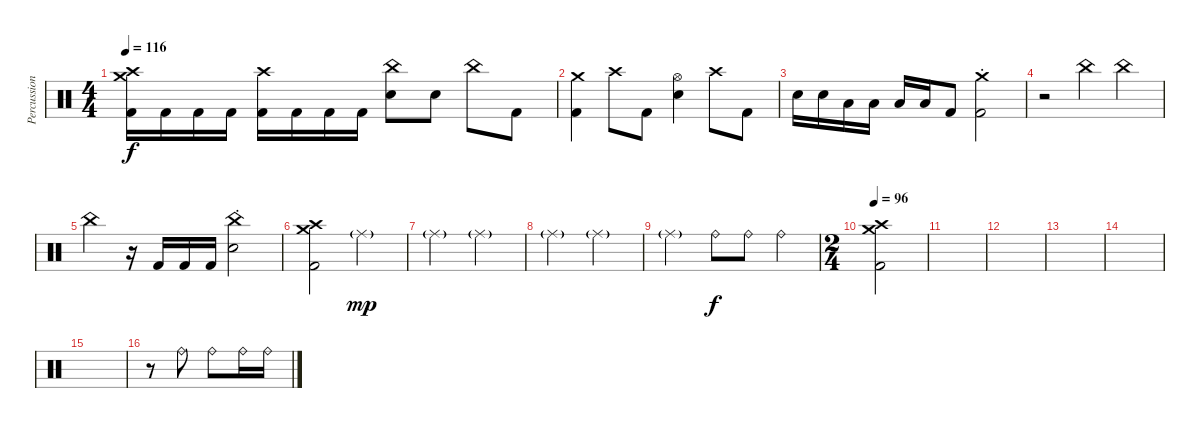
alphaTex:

\track ("Percussion" "Percussion") {instrument percussion}
\staff {score}
\articulation defaults
\ts (4 4)
\tempo 116
\clef neutral
\ks c
("Crash medium (hit)" "Crash high (hit)" "Kick (hit) 2").16{dy f} "Kick (hit) 2".16 "Kick (hit) 2".16 "Kick (hit) 2".16 ("Crash high (hit)" "Kick (hit) 2").16 "Kick (hit) 2".16 "Kick (hit) 2".16 "Kick (hit) 2".16 ("China (hit)" "Electric Snare (hit)").8 "Electric Snare (hit)".8 "China (hit)".8 "Kick (hit) 2".8 |
("Crash medium (hit)" "Kick (hit) 2").4 "Crash high (hit)".8 "Kick (hit) 2".8 ("Hi-Hat (open)" "Electric Snare (hit)").4 "Crash high (hit)".8 "Kick (hit) 2".8 |
"Electric Snare (hit)".16 "Electric Snare (hit)".16 "Low Tom (hit)".16 "Low Tom (hit)".16 "Low Floor Tom (hit)".16 "Low Floor Tom (hit)".16 "Kick (hit) 2".8 ("Crash medium (hit)"{st} "Kick (hit) 2").2 |
r.2 "China (hit)".4 "China (hit)".4 |
"China (hit)".4 r.16 "Kick (hit) 2".16 "Kick (hit) 2".16 "Kick (hit) 2".16 ("China (hit)"{st} "Electric Snare (hit)").2 |
("Crash medium (hit)" "Crash high (hit)" "Kick (hit) 2").2 "Ride (middle)"{g}.2{dy mp} |
"Ride (middle)"{g}.2 "Ride (middle)"{g}.2 |
"Ride (middle)"{g}.2 "Ride (middle)"{g}.2 |
"Ride (middle)"{g}.2 "Ride (bell)".8{dy f} "Ride (bell)".8 "Ride (bell)".4 |
\ts (2 4)
\tempo 96
("Crash medium (hit)" "Crash high (hit)" "Kick (hit) 2").2 |
|
|
|
|
|
r.8 "Ride (bell)".8 "Ride (bell)".8 "Ride (bell)".16 "Ride (bell)".16
